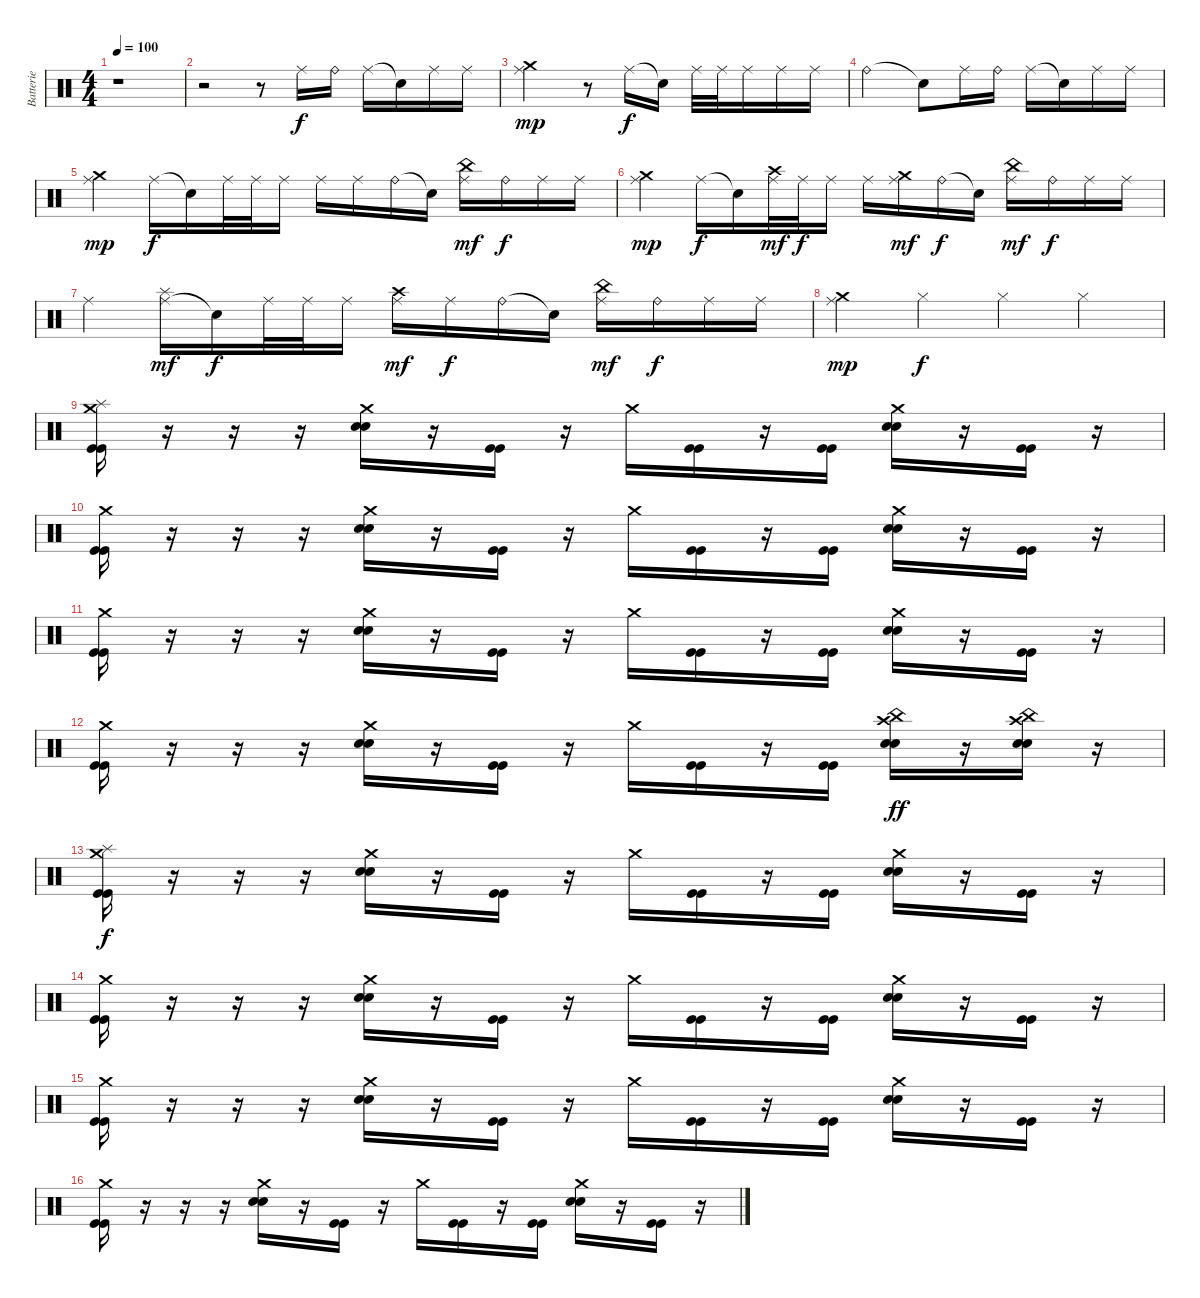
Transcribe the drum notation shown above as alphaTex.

\track ("Batterie" "Batterie") {instrument percussion}
\staff {score}
\articulation defaults
\ts (4 4)
\tempo 100
\clef neutral
\ks c
r.1{dy f} |
r.2 r.8 "Ride (middle)".16 "Ride (bell)".16 "Ride (middle)".16 "Snare (hit)"{t}.16 "Ride (middle)".16 "Ride (middle)".16 |
("Crash medium (hit)" "Ride (middle)").2{dy mp} r.8 "Ride (middle)".16{dy f} "Snare (hit)"{t}.16 "Ride (middle)".32 "Ride (middle)".32 "Ride (middle)".16 "Ride (middle)".16 "Ride (middle)".16 |
"Ride (bell)".2 "Snare (hit)"{t}.8 "Ride (middle)".16 "Ride (bell)".16 "Ride (middle)".16 "Snare (hit)"{t}.16 "Ride (middle)".16 "Ride (middle)".16 |
("Crash medium (hit)" "Ride (middle)").4{dy mp} "Ride (middle)".16{dy f} "Snare (hit)"{t}.16 "Ride (middle)".32 "Ride (middle)".32 "Ride (middle)".16 "Ride (middle)".16 "Ride (middle)".16 "Ride (bell)".16 "Snare (hit)"{t}.16 ("Ride (middle)" "China (hit)").16{dy mf} "Ride (bell)".16{dy f} "Ride (middle)".16 "Ride (middle)".16 |
("Crash medium (hit)" "Ride (middle)").4{dy mp} "Ride (middle)".16{dy f} "Snare (hit)"{t}.16 ("Ride (middle)" "Crash high (hit)").32{dy mf} "Ride (middle)".32{dy f} "Ride (middle)".16 "Ride (middle)".16 ("Ride (middle)" "Crash medium (hit)").16{dy mf} "Ride (bell)".16{dy f} "Snare (hit)"{t}.16 ("Ride (middle)" "China (hit)").16{dy mf} "Ride (bell)".16{dy f} "Ride (middle)".16 "Ride (middle)".16 |
"Ride (middle)".4 ("Ride (middle)" "Splash (hit)").16{dy mf} "Snare (hit)"{t}.16{dy f} "Ride (middle)".32 "Ride (middle)".32 "Ride (middle)".16 ("Ride (middle)" "Crash high (hit)").16{dy mf} "Ride (middle)".16{dy f} "Ride (bell)".16 "Snare (hit)"{t}.16 ("Ride (middle)" "China (hit)").16{dy mf} "Ride (bell)".16{dy f} "Ride (middle)".16 "Ride (middle)".16 |
("Crash medium (hit)" "Ride (middle)").4{dy mp} "Hi-Hat (closed)".4{dy f} "Hi-Hat (closed)".4 "Hi-Hat (closed)".4 |
("Crash medium (hit)" "Splash (hit)" "Kick (hit)" "Kick (hit)").16 r.16 r.16 r.16 ("Crash medium (hit)" "Electric Snare (hit)" "Electric Snare (hit)").16 r.16 ("Kick (hit)" "Kick (hit)").16 r.16 "Crash medium (hit)".16 ("Kick (hit)" "Kick (hit)").16 r.16 ("Kick (hit)" "Kick (hit)").16 ("Crash medium (hit)" "Electric Snare (hit)" "Electric Snare (hit)").16 r.16 ("Kick (hit)" "Kick (hit)").16 r.16 |
("Crash medium (hit)" "Kick (hit)" "Kick (hit)").16 r.16 r.16 r.16 ("Crash medium (hit)" "Electric Snare (hit)" "Electric Snare (hit)").16 r.16 ("Kick (hit)" "Kick (hit)").16 r.16 "Crash medium (hit)".16 ("Kick (hit)" "Kick (hit)").16 r.16 ("Kick (hit)" "Kick (hit)").16 ("Crash medium (hit)" "Electric Snare (hit)" "Electric Snare (hit)").16 r.16 ("Kick (hit)" "Kick (hit)").16 r.16 |
("Crash medium (hit)" "Kick (hit)" "Kick (hit)").16 r.16 r.16 r.16 ("Crash medium (hit)" "Electric Snare (hit)" "Electric Snare (hit)").16 r.16 ("Kick (hit)" "Kick (hit)").16 r.16 "Crash medium (hit)".16 ("Kick (hit)" "Kick (hit)").16 r.16 ("Kick (hit)" "Kick (hit)").16 ("Crash medium (hit)" "Electric Snare (hit)" "Electric Snare (hit)").16 r.16 ("Kick (hit)" "Kick (hit)").16 r.16 |
("Crash medium (hit)" "Kick (hit)" "Kick (hit)").16 r.16 r.16 r.16 ("Crash medium (hit)" "Electric Snare (hit)" "Electric Snare (hit)").16 r.16 ("Kick (hit)" "Kick (hit)").16 r.16 "Crash medium (hit)".16 ("Kick (hit)" "Kick (hit)").16 r.16 ("Kick (hit)" "Kick (hit)").16 ("Crash high (hit)" "China (hit)" "Electric Snare (hit)" "Electric Snare (hit)").16{dy ff} r.16 ("Crash high (hit)" "China (hit)" "Electric Snare (hit)" "Electric Snare (hit)").16 r.16 |
("Crash medium (hit)" "Splash (hit)" "Kick (hit)" "Kick (hit)").16{dy f} r.16 r.16 r.16 ("Crash medium (hit)" "Electric Snare (hit)" "Electric Snare (hit)").16 r.16 ("Kick (hit)" "Kick (hit)").16 r.16 "Crash medium (hit)".16 ("Kick (hit)" "Kick (hit)").16 r.16 ("Kick (hit)" "Kick (hit)").16 ("Crash medium (hit)" "Electric Snare (hit)" "Electric Snare (hit)").16 r.16 ("Kick (hit)" "Kick (hit)").16 r.16 |
("Crash medium (hit)" "Kick (hit)" "Kick (hit)").16 r.16 r.16 r.16 ("Crash medium (hit)" "Electric Snare (hit)" "Electric Snare (hit)").16 r.16 ("Kick (hit)" "Kick (hit)").16 r.16 "Crash medium (hit)".16 ("Kick (hit)" "Kick (hit)").16 r.16 ("Kick (hit)" "Kick (hit)").16 ("Crash medium (hit)" "Electric Snare (hit)" "Electric Snare (hit)").16 r.16 ("Kick (hit)" "Kick (hit)").16 r.16 |
("Crash medium (hit)" "Kick (hit)" "Kick (hit)").16 r.16 r.16 r.16 ("Crash medium (hit)" "Electric Snare (hit)" "Electric Snare (hit)").16 r.16 ("Kick (hit)" "Kick (hit)").16 r.16 "Crash medium (hit)".16 ("Kick (hit)" "Kick (hit)").16 r.16 ("Kick (hit)" "Kick (hit)").16 ("Crash medium (hit)" "Electric Snare (hit)" "Electric Snare (hit)").16 r.16 ("Kick (hit)" "Kick (hit)").16 r.16 |
("Crash medium (hit)" "Kick (hit)" "Kick (hit)").16 r.16 r.16 r.16 ("Crash medium (hit)" "Electric Snare (hit)" "Electric Snare (hit)").16 r.16 ("Kick (hit)" "Kick (hit)").16 r.16 "Crash medium (hit)".16 ("Kick (hit)" "Kick (hit)").16 r.16 ("Kick (hit)" "Kick (hit)").16 ("Crash medium (hit)" "Electric Snare (hit)" "Electric Snare (hit)").16 r.16 ("Kick (hit)" "Kick (hit)").16 r.16
